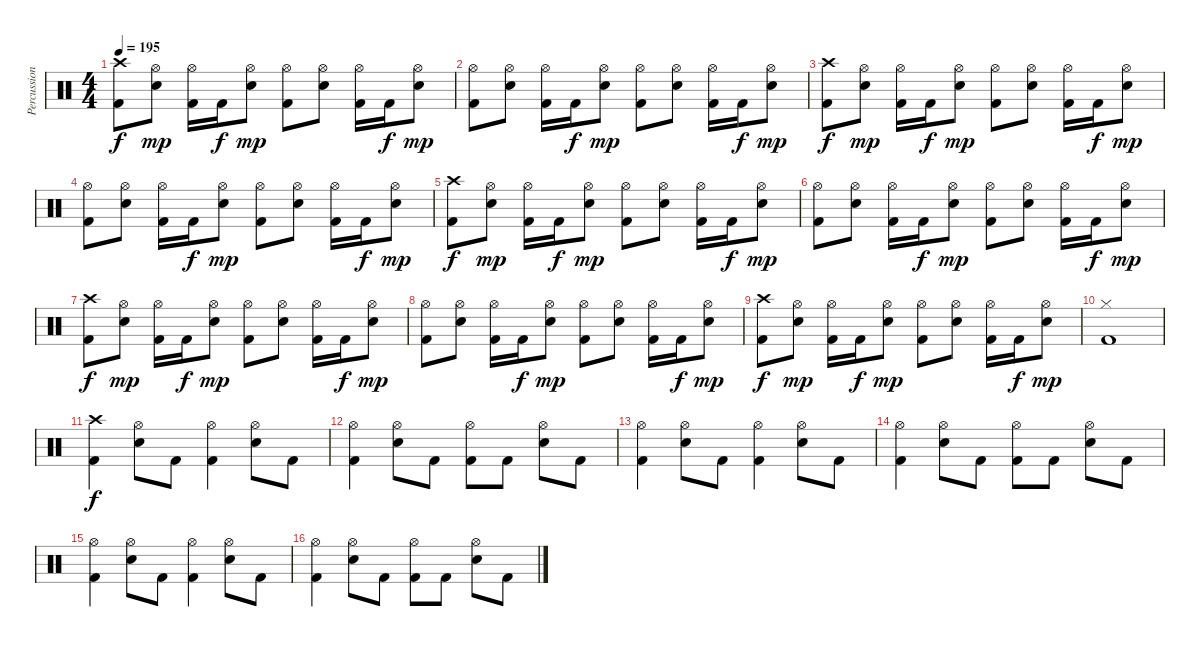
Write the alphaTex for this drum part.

\track ("Percussions" "Percussion") {instrument percussion}
\staff {score}
\articulation defaults
\ts (4 4)
\tempo 195
\clef neutral
\ks c
("Crash high (hit)" "Kick (hit) 2").8{dy f} ("Hi-Hat (open)" "Snare (hit) 2").8{dy mp} ("Hi-Hat (open)" "Kick (hit) 2").16 "Kick (hit) 2".16{dy f} ("Hi-Hat (open)" "Snare (hit) 2").8{dy mp} ("Hi-Hat (open)" "Kick (hit) 2").8 ("Hi-Hat (open)" "Snare (hit) 2").8 ("Hi-Hat (open)" "Kick (hit) 2").16 "Kick (hit) 2".16{dy f} ("Hi-Hat (open)" "Snare (hit) 2").8{dy mp} |
("Hi-Hat (open)" "Kick (hit) 2").8 ("Hi-Hat (open)" "Snare (hit) 2").8 ("Hi-Hat (open)" "Kick (hit) 2").16 "Kick (hit) 2".16{dy f} ("Hi-Hat (open)" "Snare (hit) 2").8{dy mp} ("Hi-Hat (open)" "Kick (hit) 2").8 ("Hi-Hat (open)" "Snare (hit) 2").8 ("Hi-Hat (open)" "Kick (hit) 2").16 "Kick (hit) 2".16{dy f} ("Hi-Hat (open)" "Snare (hit) 2").8{dy mp} |
("Crash high (hit)" "Kick (hit) 2").8{dy f} ("Hi-Hat (open)" "Snare (hit) 2").8{dy mp} ("Hi-Hat (open)" "Kick (hit) 2").16 "Kick (hit) 2".16{dy f} ("Hi-Hat (open)" "Snare (hit) 2").8{dy mp} ("Hi-Hat (open)" "Kick (hit) 2").8 ("Hi-Hat (open)" "Snare (hit) 2").8 ("Hi-Hat (open)" "Kick (hit) 2").16 "Kick (hit) 2".16{dy f} ("Hi-Hat (open)" "Snare (hit) 2").8{dy mp} |
("Hi-Hat (open)" "Kick (hit) 2").8 ("Hi-Hat (open)" "Snare (hit) 2").8 ("Hi-Hat (open)" "Kick (hit) 2").16 "Kick (hit) 2".16{dy f} ("Hi-Hat (open)" "Snare (hit) 2").8{dy mp} ("Hi-Hat (open)" "Kick (hit) 2").8 ("Hi-Hat (open)" "Snare (hit) 2").8 ("Hi-Hat (open)" "Kick (hit) 2").16 "Kick (hit) 2".16{dy f} ("Hi-Hat (open)" "Snare (hit) 2").8{dy mp} |
("Crash high (hit)" "Kick (hit) 2").8{dy f} ("Hi-Hat (open)" "Snare (hit) 2").8{dy mp} ("Hi-Hat (open)" "Kick (hit) 2").16 "Kick (hit) 2".16{dy f} ("Hi-Hat (open)" "Snare (hit) 2").8{dy mp} ("Hi-Hat (open)" "Kick (hit) 2").8 ("Hi-Hat (open)" "Snare (hit) 2").8 ("Hi-Hat (open)" "Kick (hit) 2").16 "Kick (hit) 2".16{dy f} ("Hi-Hat (open)" "Snare (hit) 2").8{dy mp} |
("Hi-Hat (open)" "Kick (hit) 2").8 ("Hi-Hat (open)" "Snare (hit) 2").8 ("Hi-Hat (open)" "Kick (hit) 2").16 "Kick (hit) 2".16{dy f} ("Hi-Hat (open)" "Snare (hit) 2").8{dy mp} ("Hi-Hat (open)" "Kick (hit) 2").8 ("Hi-Hat (open)" "Snare (hit) 2").8 ("Hi-Hat (open)" "Kick (hit) 2").16 "Kick (hit) 2".16{dy f} ("Hi-Hat (open)" "Snare (hit) 2").8{dy mp} |
("Crash high (hit)" "Kick (hit) 2").8{dy f} ("Hi-Hat (open)" "Snare (hit) 2").8{dy mp} ("Hi-Hat (open)" "Kick (hit) 2").16 "Kick (hit) 2".16{dy f} ("Hi-Hat (open)" "Snare (hit) 2").8{dy mp} ("Hi-Hat (open)" "Kick (hit) 2").8 ("Hi-Hat (open)" "Snare (hit) 2").8 ("Hi-Hat (open)" "Kick (hit) 2").16 "Kick (hit) 2".16{dy f} ("Hi-Hat (open)" "Snare (hit) 2").8{dy mp} |
("Hi-Hat (open)" "Kick (hit) 2").8 ("Hi-Hat (open)" "Snare (hit) 2").8 ("Hi-Hat (open)" "Kick (hit) 2").16 "Kick (hit) 2".16{dy f} ("Hi-Hat (open)" "Snare (hit) 2").8{dy mp} ("Hi-Hat (open)" "Kick (hit) 2").8 ("Hi-Hat (open)" "Snare (hit) 2").8 ("Hi-Hat (open)" "Kick (hit) 2").16 "Kick (hit) 2".16{dy f} ("Hi-Hat (open)" "Snare (hit) 2").8{dy mp} |
("Crash high (hit)" "Kick (hit) 2").8{dy f} ("Hi-Hat (open)" "Snare (hit) 2").8{dy mp} ("Hi-Hat (open)" "Kick (hit) 2").16 "Kick (hit) 2".16{dy f} ("Hi-Hat (open)" "Snare (hit) 2").8{dy mp} ("Hi-Hat (open)" "Kick (hit) 2").8 ("Hi-Hat (open)" "Snare (hit) 2").8 ("Hi-Hat (open)" "Kick (hit) 2").16 "Kick (hit) 2".16{dy f} ("Hi-Hat (open)" "Snare (hit) 2").8{dy mp} |
("Hi-Hat (closed)" "Kick (hit) 2").1 |
("Crash high (hit)" "Kick (hit) 2").4{dy f} ("Hi-Hat (open)" "Snare (hit) 2").8 "Kick (hit) 2".8 ("Hi-Hat (open)" "Kick (hit) 2").4 ("Hi-Hat (open)" "Snare (hit) 2").8 "Kick (hit) 2".8 |
("Hi-Hat (open)" "Kick (hit) 2").4 ("Hi-Hat (open)" "Snare (hit) 2").8 "Kick (hit) 2".8 ("Hi-Hat (open)" "Kick (hit) 2").8 "Kick (hit) 2".8 ("Hi-Hat (open)" "Snare (hit) 2").8 "Kick (hit) 2".8 |
("Hi-Hat (open)" "Kick (hit) 2").4 ("Hi-Hat (open)" "Snare (hit) 2").8 "Kick (hit) 2".8 ("Hi-Hat (open)" "Kick (hit) 2").4 ("Hi-Hat (open)" "Snare (hit) 2").8 "Kick (hit) 2".8 |
("Hi-Hat (open)" "Kick (hit) 2").4 ("Hi-Hat (open)" "Snare (hit) 2").8 "Kick (hit) 2".8 ("Hi-Hat (open)" "Kick (hit) 2").8 "Kick (hit) 2".8 ("Hi-Hat (open)" "Snare (hit) 2").8 "Kick (hit) 2".8 |
("Hi-Hat (open)" "Kick (hit) 2").4 ("Hi-Hat (open)" "Snare (hit) 2").8 "Kick (hit) 2".8 ("Hi-Hat (open)" "Kick (hit) 2").4 ("Hi-Hat (open)" "Snare (hit) 2").8 "Kick (hit) 2".8 |
("Hi-Hat (open)" "Kick (hit) 2").4 ("Hi-Hat (open)" "Snare (hit) 2").8 "Kick (hit) 2".8 ("Hi-Hat (open)" "Kick (hit) 2").8 "Kick (hit) 2".8 ("Hi-Hat (open)" "Snare (hit) 2").8 "Kick (hit) 2".8
